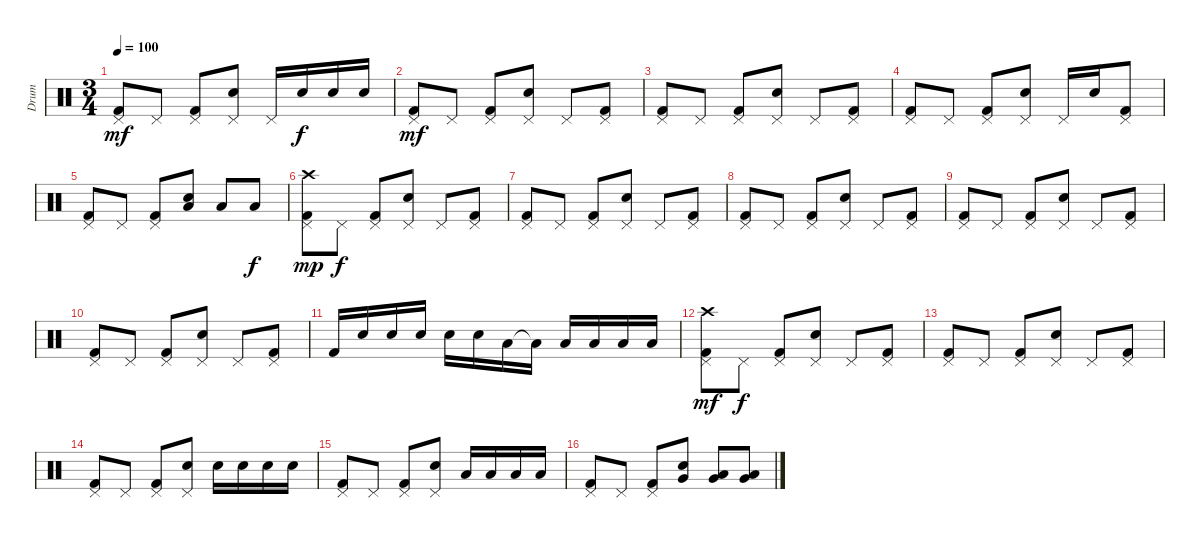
\track ("Drum" "Drum") {instrument percussion}
\staff {score}
\articulation defaults
\ts (3 4)
\tempo 100
\clef neutral
\ks c
("Kick (hit) 2" "Pedal Hi-Hat (hit)").8{dy mf} "Pedal Hi-Hat (hit)".8 ("Kick (hit) 2" "Pedal Hi-Hat (hit)").8 ("Snare (hit) 2" "Pedal Hi-Hat (hit)").8 "Pedal Hi-Hat (hit)".16 "Snare (hit) 2".16{dy f} "Snare (hit) 2".16 "Snare (hit) 2".16 |
("Kick (hit) 2" "Pedal Hi-Hat (hit)").8{dy mf} "Pedal Hi-Hat (hit)".8 ("Kick (hit) 2" "Pedal Hi-Hat (hit)").8 ("Snare (hit) 2" "Pedal Hi-Hat (hit)").8 "Pedal Hi-Hat (hit)".8 ("Kick (hit) 2" "Pedal Hi-Hat (hit)").8 |
("Kick (hit) 2" "Pedal Hi-Hat (hit)").8 "Pedal Hi-Hat (hit)".8 ("Kick (hit) 2" "Pedal Hi-Hat (hit)").8 ("Snare (hit) 2" "Pedal Hi-Hat (hit)").8 "Pedal Hi-Hat (hit)".8 ("Kick (hit) 2" "Pedal Hi-Hat (hit)").8 |
("Kick (hit) 2" "Pedal Hi-Hat (hit)").8 "Pedal Hi-Hat (hit)".8 ("Kick (hit) 2" "Pedal Hi-Hat (hit)").8 ("Snare (hit) 2" "Pedal Hi-Hat (hit)").8 "Pedal Hi-Hat (hit)".16 "Snare (hit) 2".16 ("Kick (hit) 2" "Pedal Hi-Hat (hit)").8 |
("Kick (hit) 2" "Pedal Hi-Hat (hit)").8 "Pedal Hi-Hat (hit)".8 ("Kick (hit) 2" "Pedal Hi-Hat (hit)").8 ("Snare (hit) 2" "Low Tom (hit)").8{bd 120} "Low Tom (hit)".8 "Low Tom (hit)".8{dy f} |
("Kick (hit) 2" "Pedal Hi-Hat (hit)" "Crash high (hit)").8{dy mp} "Pedal Hi-Hat (hit)".8{dy f} ("Kick (hit) 2" "Pedal Hi-Hat (hit)").8 ("Snare (hit) 2" "Pedal Hi-Hat (hit)").8 "Pedal Hi-Hat (hit)".8 ("Kick (hit) 2" "Pedal Hi-Hat (hit)").8 |
("Kick (hit) 2" "Pedal Hi-Hat (hit)").8 "Pedal Hi-Hat (hit)".8 ("Kick (hit) 2" "Pedal Hi-Hat (hit)").8 ("Snare (hit) 2" "Pedal Hi-Hat (hit)").8 "Pedal Hi-Hat (hit)".8 ("Kick (hit) 2" "Pedal Hi-Hat (hit)").8 |
("Kick (hit) 2" "Pedal Hi-Hat (hit)").8 "Pedal Hi-Hat (hit)".8 ("Kick (hit) 2" "Pedal Hi-Hat (hit)").8 ("Snare (hit) 2" "Pedal Hi-Hat (hit)").8 "Pedal Hi-Hat (hit)".8 ("Kick (hit) 2" "Pedal Hi-Hat (hit)").8 |
("Kick (hit) 2" "Pedal Hi-Hat (hit)").8 "Pedal Hi-Hat (hit)".8 ("Kick (hit) 2" "Pedal Hi-Hat (hit)").8 ("Snare (hit) 2" "Pedal Hi-Hat (hit)").8 "Pedal Hi-Hat (hit)".8 ("Kick (hit) 2" "Pedal Hi-Hat (hit)").8 |
("Kick (hit) 2" "Pedal Hi-Hat (hit)").8 "Pedal Hi-Hat (hit)".8 ("Kick (hit) 2" "Pedal Hi-Hat (hit)").8 ("Snare (hit) 2" "Pedal Hi-Hat (hit)").8 "Pedal Hi-Hat (hit)".8 ("Kick (hit) 2" "Pedal Hi-Hat (hit)").8 |
"Kick (hit) 2".16 "Snare (hit) 2".16 "Snare (hit) 2".16 "Snare (hit) 2".16 "Snare (hit) 2".16 "Snare (hit) 2".16 "Low Tom (hit)".16 "Low Tom (hit)"{t}.16 "Low Tom (hit)".16 "Low Tom (hit)".16 "Low Tom (hit)".16 "Low Tom (hit)".16 |
("Kick (hit) 2" "Pedal Hi-Hat (hit)" "Crash high (hit)").8{dy mf} "Pedal Hi-Hat (hit)".8{dy f} ("Kick (hit) 2" "Pedal Hi-Hat (hit)").8 ("Snare (hit) 2" "Pedal Hi-Hat (hit)").8 "Pedal Hi-Hat (hit)".8 ("Kick (hit) 2" "Pedal Hi-Hat (hit)").8 |
("Kick (hit) 2" "Pedal Hi-Hat (hit)").8 "Pedal Hi-Hat (hit)".8 ("Kick (hit) 2" "Pedal Hi-Hat (hit)").8 ("Snare (hit) 2" "Pedal Hi-Hat (hit)").8 "Pedal Hi-Hat (hit)".8 ("Kick (hit) 2" "Pedal Hi-Hat (hit)").8 |
("Kick (hit) 2" "Pedal Hi-Hat (hit)").8 "Pedal Hi-Hat (hit)".8 ("Kick (hit) 2" "Pedal Hi-Hat (hit)").8 ("Snare (hit) 2" "Pedal Hi-Hat (hit)").8 "Snare (hit) 2".16 "Snare (hit) 2".16 "Snare (hit) 2".16 "Snare (hit) 2".16 |
("Kick (hit) 2" "Pedal Hi-Hat (hit)").8 "Pedal Hi-Hat (hit)".8 ("Kick (hit) 2" "Pedal Hi-Hat (hit)").8 ("Snare (hit) 2" "Pedal Hi-Hat (hit)").8 "Low Tom (hit)".16 "Low Tom (hit)".16 "Low Tom (hit)".16 "Low Tom (hit)".16 |
("Kick (hit) 2" "Pedal Hi-Hat (hit)").8 "Pedal Hi-Hat (hit)".8 ("Kick (hit) 2" "Pedal Hi-Hat (hit)").8 ("Snare (hit) 2" "Very Low Tom (hit)").8{bd 30} ("Low Tom (hit)" "Very Low Tom (hit)").8{bd 30} ("Low Tom (hit)" "Very Low Tom (hit)").8{bd 30}
